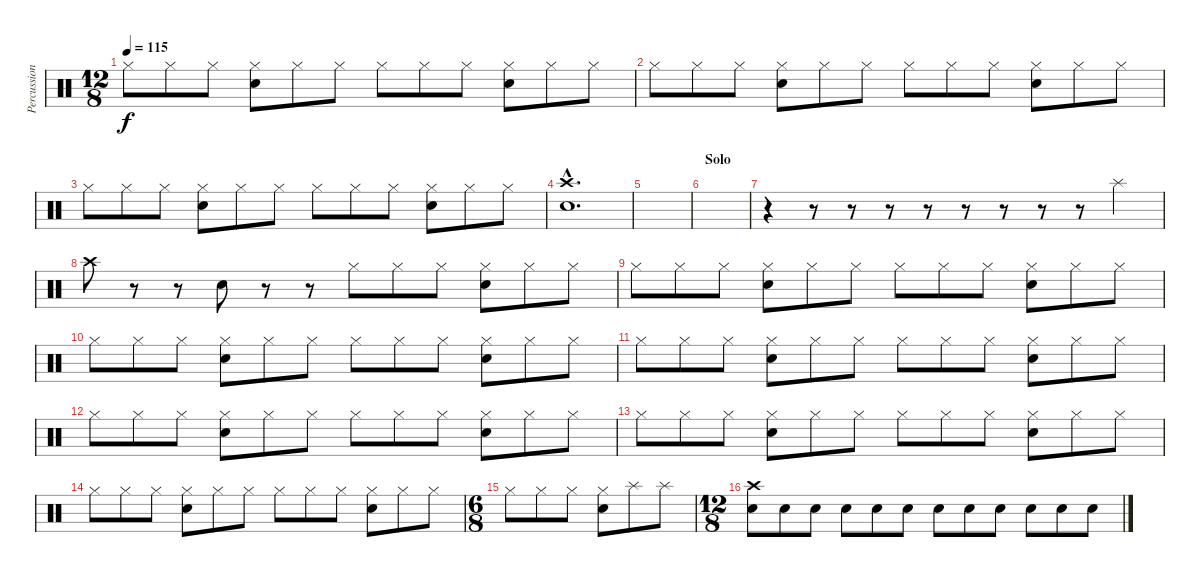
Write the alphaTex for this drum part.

\track ("Percussions" "Percussion") {instrument percussion}
\staff {score}
\articulation defaults
\ts (12 8)
\tempo 115
\clef neutral
\ks c "Hi-Hat (closed)".8{dy f} "Hi-Hat (closed)".8 "Hi-Hat (closed)".8
("Hi-Hat (closed)" "Electric Snare (hit)").8 "Hi-Hat (closed)".8 "Hi-Hat (closed)".8 "Hi-Hat (closed)".8 "Hi-Hat (closed)".8 "Hi-Hat (closed)".8 ("Hi-Hat (closed)" "Electric Snare (hit)").8 "Hi-Hat (closed)".8 "Hi-Hat (closed)".8 |
"Hi-Hat (closed)".8 "Hi-Hat (closed)".8 "Hi-Hat (closed)".8 ("Hi-Hat (closed)" "Electric Snare (hit)").8 "Hi-Hat (closed)".8 "Hi-Hat (closed)".8 "Hi-Hat (closed)".8 "Hi-Hat (closed)".8 "Hi-Hat (closed)".8 ("Hi-Hat (closed)" "Electric Snare (hit)").8 "Hi-Hat (closed)".8 "Hi-Hat (closed)".8 |
"Hi-Hat (closed)".8 "Hi-Hat (closed)".8 "Hi-Hat (closed)".8 ("Hi-Hat (closed)" "Electric Snare (hit)").8 "Hi-Hat (closed)".8 "Hi-Hat (closed)".8 "Hi-Hat (closed)".8 "Hi-Hat (closed)".8 "Hi-Hat (closed)".8 ("Hi-Hat (closed)" "Electric Snare (hit)").8 "Hi-Hat (closed)".8 "Hi-Hat (closed)".8 |
("Crash high (hit)"{hac} "Snare (hit) 2"{hac}).1{d} |
|
\section ("" "Solo")
|
r.4 r.8 r.8 r.8 r.8 r.8 r.8 r.8 r.8 "Splash (hit)".4 |
"Crash high (hit)".8 r.8 r.8 "Electric Snare (hit)".8 r.8 r.8 "Hi-Hat (closed)".8 "Hi-Hat (closed)".8 "Hi-Hat (closed)".8 ("Hi-Hat (closed)" "Electric Snare (hit)").8 "Hi-Hat (closed)".8 "Hi-Hat (closed)".8 |
"Hi-Hat (closed)".8 "Hi-Hat (closed)".8 "Hi-Hat (closed)".8 ("Hi-Hat (closed)" "Electric Snare (hit)").8 "Hi-Hat (closed)".8 "Hi-Hat (closed)".8 "Hi-Hat (closed)".8 "Hi-Hat (closed)".8 "Hi-Hat (closed)".8 ("Hi-Hat (closed)" "Electric Snare (hit)").8 "Hi-Hat (closed)".8 "Hi-Hat (closed)".8 |
"Hi-Hat (closed)".8 "Hi-Hat (closed)".8 "Hi-Hat (closed)".8 ("Hi-Hat (closed)" "Electric Snare (hit)").8 "Hi-Hat (closed)".8 "Hi-Hat (closed)".8 "Hi-Hat (closed)".8 "Hi-Hat (closed)".8 "Hi-Hat (closed)".8 ("Hi-Hat (closed)" "Electric Snare (hit)").8 "Hi-Hat (closed)".8 "Hi-Hat (closed)".8 |
"Hi-Hat (closed)".8 "Hi-Hat (closed)".8 "Hi-Hat (closed)".8 ("Hi-Hat (closed)" "Electric Snare (hit)").8 "Hi-Hat (closed)".8 "Hi-Hat (closed)".8 "Hi-Hat (closed)".8 "Hi-Hat (closed)".8 "Hi-Hat (closed)".8 ("Hi-Hat (closed)" "Electric Snare (hit)").8 "Hi-Hat (closed)".8 "Hi-Hat (closed)".8 |
"Hi-Hat (closed)".8 "Hi-Hat (closed)".8 "Hi-Hat (closed)".8 ("Hi-Hat (closed)" "Electric Snare (hit)").8 "Hi-Hat (closed)".8 "Hi-Hat (closed)".8 "Hi-Hat (closed)".8 "Hi-Hat (closed)".8 "Hi-Hat (closed)".8 ("Hi-Hat (closed)" "Electric Snare (hit)").8 "Hi-Hat (closed)".8 "Hi-Hat (closed)".8 |
"Hi-Hat (closed)".8 "Hi-Hat (closed)".8 "Hi-Hat (closed)".8 ("Hi-Hat (closed)" "Electric Snare (hit)").8 "Hi-Hat (closed)".8 "Hi-Hat (closed)".8 "Hi-Hat (closed)".8 "Hi-Hat (closed)".8 "Hi-Hat (closed)".8 ("Hi-Hat (closed)" "Electric Snare (hit)").8 "Hi-Hat (closed)".8 "Hi-Hat (closed)".8 |
"Hi-Hat (closed)".8 "Hi-Hat (closed)".8 "Hi-Hat (closed)".8 ("Hi-Hat (closed)" "Electric Snare (hit)").8 "Hi-Hat (closed)".8 "Hi-Hat (closed)".8 "Hi-Hat (closed)".8 "Hi-Hat (closed)".8 "Hi-Hat (closed)".8 ("Hi-Hat (closed)" "Electric Snare (hit)").8 "Hi-Hat (closed)".8 "Hi-Hat (closed)".8 |
\ts (6 8)
"Hi-Hat (closed)".8 "Hi-Hat (closed)".8 "Hi-Hat (closed)".8 ("Hi-Hat (closed)" "Electric Snare (hit)").8 "Splash (hit)".8 "Splash (hit)".8 |
\ts (12 8)
("Crash high (hit)" "Snare (hit) 2").8 "Snare (hit) 2".8 "Snare (hit) 2".8 "Snare (hit) 2".8 "Snare (hit) 2".8 "Snare (hit) 2".8 "Snare (hit) 2".8 "Snare (hit) 2".8 "Snare (hit) 2".8 "Snare (hit) 2".8 "Snare (hit) 2".8 "Snare (hit) 2".8
